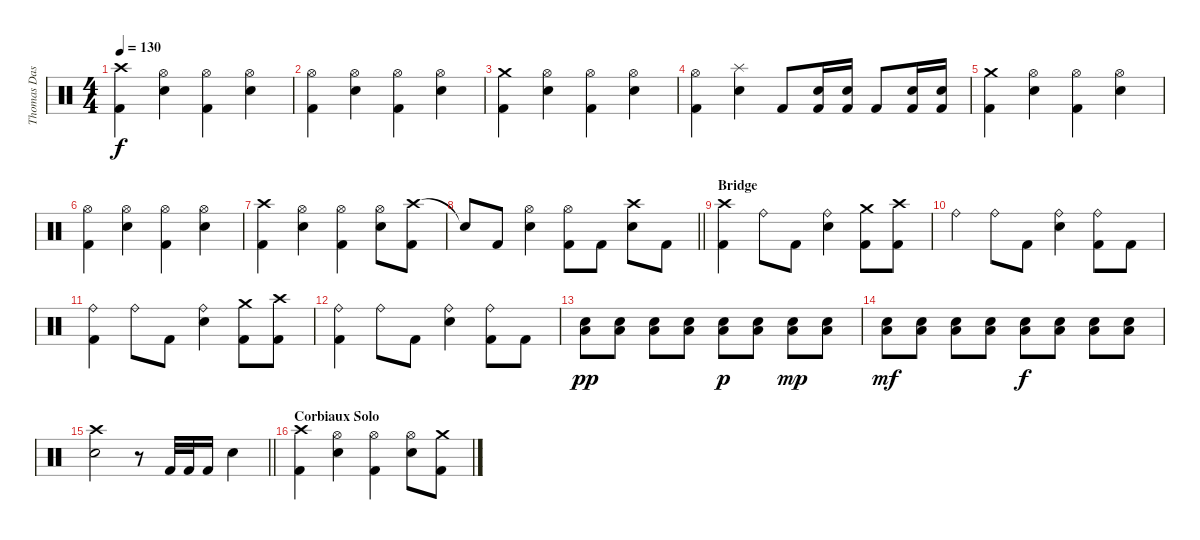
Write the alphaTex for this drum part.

\track ("Thomas Das Neves (Drums)" "Thomas Das") {instrument percussion}
\staff {score}
\articulation defaults
\ts (4 4)
\tempo 130
\clef neutral
\ks c
("Crash high (hit)" "Kick (hit) 2").4{dy f} ("Hi-Hat (open)" "Snare (hit) 2").4 ("Hi-Hat (open)" "Kick (hit) 2").4 ("Hi-Hat (open)" "Snare (hit) 2").4 |
("Hi-Hat (open)" "Kick (hit) 2").4 ("Hi-Hat (open)" "Snare (hit) 2").4 ("Hi-Hat (open)" "Kick (hit) 2").4 ("Hi-Hat (open)" "Snare (hit) 2").4 |
("Crash medium (hit)" "Kick (hit) 2").4 ("Hi-Hat (open)" "Snare (hit) 2").4 ("Hi-Hat (open)" "Kick (hit) 2").4 ("Hi-Hat (open)" "Snare (hit) 2").4 |
("Hi-Hat (open)" "Kick (hit) 2").4 ("Splash (hit)" "Snare (hit) 2").4 "Kick (hit) 2".8 ("Snare (hit) 2" "Kick (hit) 2").16 ("Snare (hit) 2" "Kick (hit) 2").16 "Kick (hit) 2".8 ("Snare (hit) 2" "Kick (hit) 2").16 ("Snare (hit) 2" "Kick (hit) 2").16 |
("Crash medium (hit)" "Kick (hit) 2").4 ("Hi-Hat (open)" "Snare (hit) 2").4 ("Hi-Hat (open)" "Kick (hit) 2").4 ("Hi-Hat (open)" "Snare (hit) 2").4 |
("Hi-Hat (open)" "Kick (hit) 2").4 ("Hi-Hat (open)" "Snare (hit) 2").4 ("Hi-Hat (open)" "Kick (hit) 2").4 ("Hi-Hat (open)" "Snare (hit) 2").4 |
("Crash high (hit)" "Kick (hit) 2").4 ("Hi-Hat (open)" "Snare (hit) 2").4 ("Hi-Hat (open)" "Kick (hit) 2").4 ("Hi-Hat (open)" "Snare (hit) 2").8 ("Crash high (hit)" "Kick (hit) 2").8 |
\barLineRight lightlight "Snare (hit)"{t}.8 "Kick (hit) 2".8
("Hi-Hat (open)" "Snare (hit) 2").4 ("Hi-Hat (open)" "Kick (hit) 2").8 "Kick (hit) 2".8 ("Crash high (hit)" "Snare (hit) 2").8 "Kick (hit) 2".8 |
\section ("" "Bridge")
("Crash high (hit)" "Kick (hit) 2").4 "Ride (bell)".8 "Kick (hit) 2".8 ("Ride (bell)" "Snare (hit) 2").4 ("Crash medium (hit)" "Kick (hit) 2").8 ("Crash high (hit)" "Kick (hit) 2").8 |
"Ride (bell)".4 "Ride (bell)".8 "Kick (hit) 2".8 ("Ride (bell)" "Snare (hit) 2").4 ("Ride (bell)" "Kick (hit) 2").8 "Kick (hit) 2".8 |
("Ride (bell)" "Kick (hit) 2").4 "Ride (bell)".8 "Kick (hit) 2".8 ("Ride (bell)" "Snare (hit) 2").4 ("Crash medium (hit)" "Kick (hit) 2").8 ("Crash high (hit)" "Kick (hit) 2").8 |
("Ride (bell)" "Kick (hit) 2").4 "Ride (bell)".8 "Kick (hit) 2".8 ("Ride (bell)" "Snare (hit) 2").4 ("Ride (bell)" "Kick (hit) 2").8 "Kick (hit) 2".8 |
("Low Floor Tom (hit)" "Snare (hit) 2").8{dy pp} ("Low Floor Tom (hit)" "Snare (hit) 2").8 ("Low Floor Tom (hit)" "Snare (hit) 2").8 ("Low Floor Tom (hit)" "Snare (hit) 2").8 ("Low Floor Tom (hit)" "Snare (hit) 2").8{dy p} ("Low Floor Tom (hit)" "Snare (hit) 2").8 ("Low Floor Tom (hit)" "Snare (hit) 2").8{dy mp} ("Low Floor Tom (hit)" "Snare (hit) 2").8 |
("Low Floor Tom (hit)" "Snare (hit) 2").8{dy mf} ("Low Floor Tom (hit)" "Snare (hit) 2").8 ("Low Floor Tom (hit)" "Snare (hit) 2").8 ("Low Floor Tom (hit)" "Snare (hit) 2").8 ("Low Floor Tom (hit)" "Snare (hit) 2").8{dy f} ("Low Floor Tom (hit)" "Snare (hit) 2").8 ("Low Floor Tom (hit)" "Snare (hit) 2").8 ("Low Floor Tom (hit)" "Snare (hit) 2").8 |
\barLineRight lightlight
("Crash high (hit)" "Snare (hit) 2").2 r.8 "Kick (hit) 2".32 "Kick (hit) 2".32 "Kick (hit) 2".16 "Snare (hit) 2".4 |
\section ("" "Corbiaux Solo")
("Crash high (hit)" "Kick (hit) 2").4 ("Hi-Hat (open)" "Snare (hit) 2").4 ("Hi-Hat (open)" "Kick (hit) 2").4 ("Hi-Hat (open)" "Snare (hit) 2").8 ("Crash medium (hit)" "Kick (hit) 2").8
